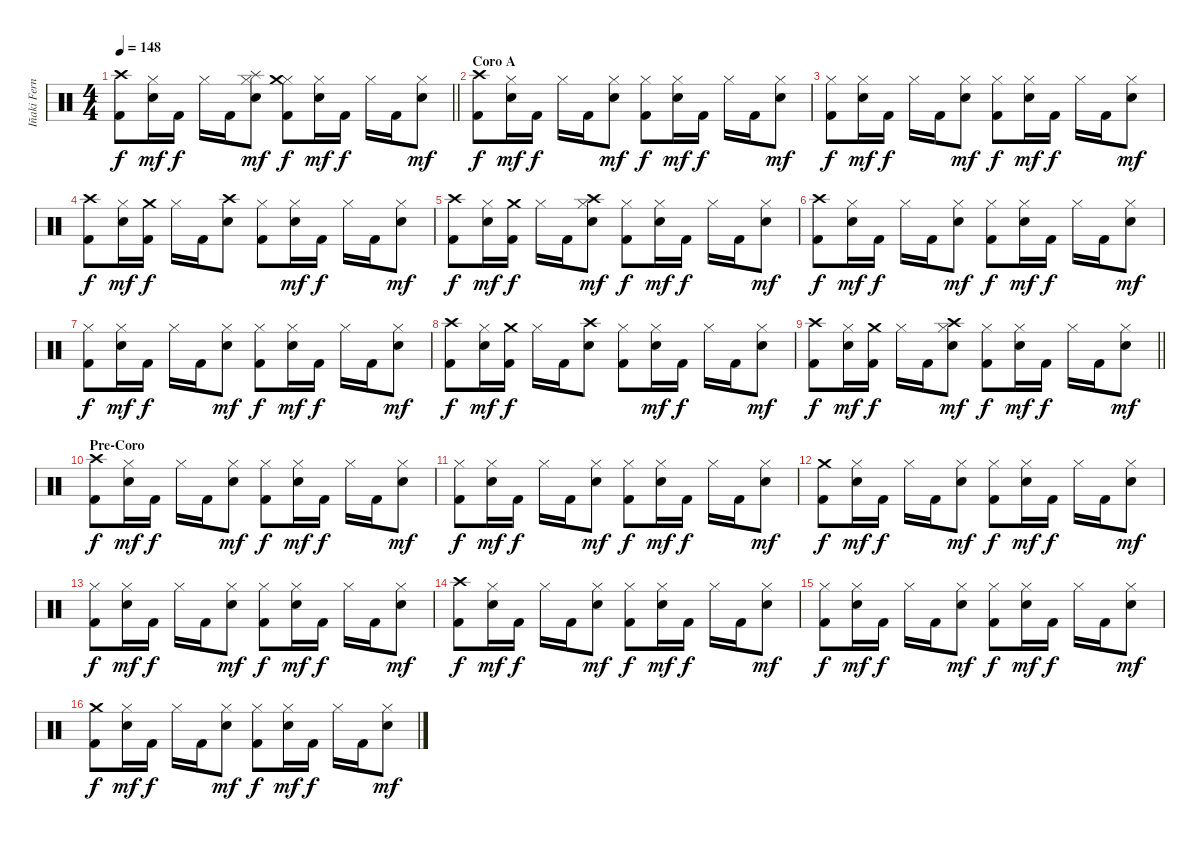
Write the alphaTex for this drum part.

\track ("Iñaki Fernández" "Iñaki Fern") {instrument percussion}
\staff {score}
\articulation defaults
\ts (4 4)
\tempo 148
\clef neutral
\barLineRight lightlight
\ks c
("Crash high (hit)" "Kick (hit) 2").8{dy f} ("Hi-Hat (closed)" "Snare (hit) 2").16{dy mf} "Kick (hit) 2".16{dy f} "Hi-Hat (closed)".16 "Kick (hit) 2".16 ("Hi-Hat (closed)" "Snare (hit) 2" "Splash (hit)").8{dy mf} ("Hi-Hat (closed)" "Crash medium (hit)" "Kick (hit) 2").8{dy f} ("Hi-Hat (closed)" "Snare (hit) 2").16{dy mf} "Kick (hit) 2".16{dy f} "Hi-Hat (closed)".16 "Kick (hit) 2".16 ("Hi-Hat (closed)" "Snare (hit) 2").8{dy mf} |
\section ("" "Coro A")
("Crash high (hit)" "Kick (hit) 2").8{dy f} ("Hi-Hat (closed)" "Snare (hit) 2").16{dy mf} "Kick (hit) 2".16{dy f} "Hi-Hat (closed)".16 "Kick (hit) 2".16 ("Hi-Hat (closed)" "Snare (hit) 2").8{dy mf} ("Hi-Hat (closed)" "Kick (hit) 2").8{dy f} ("Hi-Hat (closed)" "Snare (hit) 2").16{dy mf} "Kick (hit) 2".16{dy f} "Hi-Hat (closed)".16 "Kick (hit) 2".16 ("Hi-Hat (closed)" "Snare (hit) 2").8{dy mf} |
("Hi-Hat (closed)" "Kick (hit) 2").8{dy f} ("Hi-Hat (closed)" "Snare (hit) 2").16{dy mf} "Kick (hit) 2".16{dy f} "Hi-Hat (closed)".16 "Kick (hit) 2".16 ("Hi-Hat (closed)" "Snare (hit) 2").8{dy mf} ("Hi-Hat (closed)" "Kick (hit) 2").8{dy f} ("Hi-Hat (closed)" "Snare (hit) 2").16{dy mf} "Kick (hit) 2".16{dy f} "Hi-Hat (closed)".16 "Kick (hit) 2".16 ("Hi-Hat (closed)" "Snare (hit) 2").8{dy mf} |
("Crash high (hit)" "Kick (hit) 2").8{dy f} ("Hi-Hat (closed)" "Snare (hit) 2").16{dy mf} ("Crash medium (hit)" "Kick (hit) 2").16{dy f} "Hi-Hat (closed)".16 "Kick (hit) 2".16 ("Snare (hit) 2" "Crash high (hit)").8 ("Hi-Hat (closed)" "Kick (hit) 2").8 ("Hi-Hat (closed)" "Snare (hit) 2").16{dy mf} "Kick (hit) 2".16{dy f} "Hi-Hat (closed)".16 "Kick (hit) 2".16 ("Hi-Hat (closed)" "Snare (hit) 2").8{dy mf} |
("Crash high (hit)" "Kick (hit) 2").8{dy f} ("Hi-Hat (closed)" "Snare (hit) 2").16{dy mf} ("Crash medium (hit)" "Kick (hit) 2").16{dy f} "Hi-Hat (closed)".16 "Kick (hit) 2".16 ("Hi-Hat (closed)" "Snare (hit) 2" "Crash high (hit)").8{dy mf} ("Hi-Hat (closed)" "Kick (hit) 2").8{dy f} ("Hi-Hat (closed)" "Snare (hit) 2").16{dy mf} "Kick (hit) 2".16{dy f} "Hi-Hat (closed)".16 "Kick (hit) 2".16 ("Hi-Hat (closed)" "Snare (hit) 2").8{dy mf} |
("Crash high (hit)" "Kick (hit) 2").8{dy f} ("Hi-Hat (closed)" "Snare (hit) 2").16{dy mf} "Kick (hit) 2".16{dy f} "Hi-Hat (closed)".16 "Kick (hit) 2".16 ("Hi-Hat (closed)" "Snare (hit) 2").8{dy mf} ("Hi-Hat (closed)" "Kick (hit) 2").8{dy f} ("Hi-Hat (closed)" "Snare (hit) 2").16{dy mf} "Kick (hit) 2".16{dy f} "Hi-Hat (closed)".16 "Kick (hit) 2".16 ("Hi-Hat (closed)" "Snare (hit) 2").8{dy mf} |
("Hi-Hat (closed)" "Kick (hit) 2").8{dy f} ("Hi-Hat (closed)" "Snare (hit) 2").16{dy mf} "Kick (hit) 2".16{dy f} "Hi-Hat (closed)".16 "Kick (hit) 2".16 ("Hi-Hat (closed)" "Snare (hit) 2").8{dy mf} ("Hi-Hat (closed)" "Kick (hit) 2").8{dy f} ("Hi-Hat (closed)" "Snare (hit) 2").16{dy mf} "Kick (hit) 2".16{dy f} "Hi-Hat (closed)".16 "Kick (hit) 2".16 ("Hi-Hat (closed)" "Snare (hit) 2").8{dy mf} |
("Crash high (hit)" "Kick (hit) 2").8{dy f} ("Hi-Hat (closed)" "Snare (hit) 2").16{dy mf} ("Crash medium (hit)" "Kick (hit) 2").16{dy f} "Hi-Hat (closed)".16 "Kick (hit) 2".16 ("Snare (hit) 2" "Crash high (hit)").8 ("Hi-Hat (closed)" "Kick (hit) 2").8 ("Hi-Hat (closed)" "Snare (hit) 2").16{dy mf} "Kick (hit) 2".16{dy f} "Hi-Hat (closed)".16 "Kick (hit) 2".16 ("Hi-Hat (closed)" "Snare (hit) 2").8{dy mf} |
\barLineRight lightlight
("Crash high (hit)" "Kick (hit) 2").8{dy f} ("Hi-Hat (closed)" "Snare (hit) 2").16{dy mf} ("Crash medium (hit)" "Kick (hit) 2").16{dy f} "Hi-Hat (closed)".16 "Kick (hit) 2".16 ("Hi-Hat (closed)" "Snare (hit) 2" "Crash high (hit)").8{dy mf} ("Hi-Hat (closed)" "Kick (hit) 2").8{dy f} ("Hi-Hat (closed)" "Snare (hit) 2").16{dy mf} "Kick (hit) 2".16{dy f} "Hi-Hat (closed)".16 "Kick (hit) 2".16 ("Hi-Hat (closed)" "Snare (hit) 2").8{dy mf} |
\section ("" "Pre-Coro")
("Crash high (hit)" "Kick (hit) 2").8{dy f} ("Hi-Hat (closed)" "Snare (hit) 2").16{dy mf} "Kick (hit) 2".16{dy f} "Hi-Hat (closed)".16 "Kick (hit) 2".16 ("Hi-Hat (closed)" "Snare (hit) 2").8{dy mf} ("Hi-Hat (closed)" "Kick (hit) 2").8{dy f} ("Hi-Hat (closed)" "Snare (hit) 2").16{dy mf} "Kick (hit) 2".16{dy f} "Hi-Hat (closed)".16 "Kick (hit) 2".16 ("Hi-Hat (closed)" "Snare (hit) 2").8{dy mf} |
("Hi-Hat (closed)" "Kick (hit) 2").8{dy f} ("Hi-Hat (closed)" "Snare (hit) 2").16{dy mf} "Kick (hit) 2".16{dy f} "Hi-Hat (closed)".16 "Kick (hit) 2".16 ("Hi-Hat (closed)" "Snare (hit) 2").8{dy mf} ("Hi-Hat (closed)" "Kick (hit) 2").8{dy f} ("Hi-Hat (closed)" "Snare (hit) 2").16{dy mf} "Kick (hit) 2".16{dy f} "Hi-Hat (closed)".16 "Kick (hit) 2".16 ("Hi-Hat (closed)" "Snare (hit) 2").8{dy mf} |
("Crash medium (hit)" "Kick (hit) 2").8{dy f} ("Hi-Hat (closed)" "Snare (hit) 2").16{dy mf} "Kick (hit) 2".16{dy f} "Hi-Hat (closed)".16 "Kick (hit) 2".16 ("Hi-Hat (closed)" "Snare (hit) 2").8{dy mf} ("Hi-Hat (closed)" "Kick (hit) 2").8{dy f} ("Hi-Hat (closed)" "Snare (hit) 2").16{dy mf} "Kick (hit) 2".16{dy f} "Hi-Hat (closed)".16 "Kick (hit) 2".16 ("Hi-Hat (closed)" "Snare (hit) 2").8{dy mf} |
("Hi-Hat (closed)" "Kick (hit) 2").8{dy f} ("Hi-Hat (closed)" "Snare (hit) 2").16{dy mf} "Kick (hit) 2".16{dy f} "Hi-Hat (closed)".16 "Kick (hit) 2".16 ("Hi-Hat (closed)" "Snare (hit) 2").8{dy mf} ("Hi-Hat (closed)" "Kick (hit) 2").8{dy f} ("Hi-Hat (closed)" "Snare (hit) 2").16{dy mf} "Kick (hit) 2".16{dy f} "Hi-Hat (closed)".16 "Kick (hit) 2".16 ("Hi-Hat (closed)" "Snare (hit) 2").8{dy mf} |
("Crash high (hit)" "Kick (hit) 2").8{dy f} ("Hi-Hat (closed)" "Snare (hit) 2").16{dy mf} "Kick (hit) 2".16{dy f} "Hi-Hat (closed)".16 "Kick (hit) 2".16 ("Hi-Hat (closed)" "Snare (hit) 2").8{dy mf} ("Hi-Hat (closed)" "Kick (hit) 2").8{dy f} ("Hi-Hat (closed)" "Snare (hit) 2").16{dy mf} "Kick (hit) 2".16{dy f} "Hi-Hat (closed)".16 "Kick (hit) 2".16 ("Hi-Hat (closed)" "Snare (hit) 2").8{dy mf} |
("Hi-Hat (closed)" "Kick (hit) 2").8{dy f} ("Hi-Hat (closed)" "Snare (hit) 2").16{dy mf} "Kick (hit) 2".16{dy f} "Hi-Hat (closed)".16 "Kick (hit) 2".16 ("Hi-Hat (closed)" "Snare (hit) 2").8{dy mf} ("Hi-Hat (closed)" "Kick (hit) 2").8{dy f} ("Hi-Hat (closed)" "Snare (hit) 2").16{dy mf} "Kick (hit) 2".16{dy f} "Hi-Hat (closed)".16 "Kick (hit) 2".16 ("Hi-Hat (closed)" "Snare (hit) 2").8{dy mf} |
("Crash medium (hit)" "Kick (hit) 2").8{dy f} ("Hi-Hat (closed)" "Snare (hit) 2").16{dy mf} "Kick (hit) 2".16{dy f} "Hi-Hat (closed)".16 "Kick (hit) 2".16 ("Hi-Hat (closed)" "Snare (hit) 2").8{dy mf} ("Hi-Hat (closed)" "Kick (hit) 2").8{dy f} ("Hi-Hat (closed)" "Snare (hit) 2").16{dy mf} "Kick (hit) 2".16{dy f} "Hi-Hat (closed)".16 "Kick (hit) 2".16 ("Hi-Hat (closed)" "Snare (hit) 2").8{dy mf}
